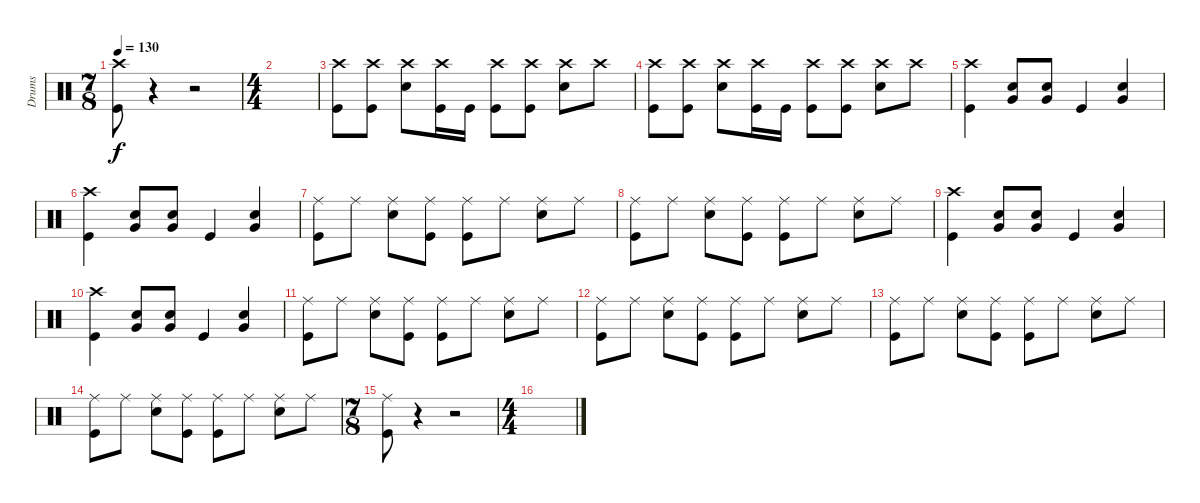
\track ("Drums" "Drums") {instrument percussion}
\staff {score}
\articulation defaults
\ts (7 8)
\tempo 130
\clef neutral
\ks c
("Crash high (hit)" "Kick (hit)").8{dy f} r.4 r.2 |
\ts (4 4)
|
("Crash high (hit)" "Kick (hit)").8 ("Crash high (hit)" "Kick (hit)").8 ("Crash high (hit)" "Snare (hit) 2").8 ("Crash high (hit)" "Kick (hit)").16 "Kick (hit)".16 ("Crash high (hit)" "Kick (hit)").8 ("Crash high (hit)" "Kick (hit)").8 ("Crash high (hit)" "Snare (hit) 2").8 "Crash high (hit)".8 |
("Crash high (hit)" "Kick (hit)").8 ("Crash high (hit)" "Kick (hit)").8 ("Crash high (hit)" "Snare (hit) 2").8 ("Crash high (hit)" "Kick (hit)").16 "Kick (hit)".16 ("Crash high (hit)" "Kick (hit)").8 ("Crash high (hit)" "Kick (hit)").8 ("Crash high (hit)" "Snare (hit) 2").8 "Crash high (hit)".8 |
("Crash high (hit)" "Kick (hit)").4 ("Snare (hit) 2" "Very Low Tom (hit)").8 ("Snare (hit) 2" "Very Low Tom (hit)").8 "Kick (hit)".4 ("Snare (hit) 2" "Very Low Tom (hit)").4 |
("Crash high (hit)" "Kick (hit)").4 ("Snare (hit) 2" "Very Low Tom (hit)").8 ("Snare (hit) 2" "Very Low Tom (hit)").8 "Kick (hit)".4 ("Snare (hit) 2" "Very Low Tom (hit)").4 |
("Ride (middle)" "Kick (hit)").8 "Ride (middle)".8 ("Ride (middle)" "Snare (hit) 2").8 ("Ride (middle)" "Kick (hit)").8 ("Ride (middle)" "Kick (hit)").8 "Ride (middle)".8 ("Ride (middle)" "Snare (hit) 2").8 "Ride (middle)".8 |
("Ride (middle)" "Kick (hit)").8 "Ride (middle)".8 ("Ride (middle)" "Snare (hit) 2").8 ("Ride (middle)" "Kick (hit)").8 ("Ride (middle)" "Kick (hit)").8 "Ride (middle)".8 ("Ride (middle)" "Snare (hit) 2").8 "Ride (middle)".8 |
("Crash high (hit)" "Kick (hit)").4 ("Snare (hit) 2" "Very Low Tom (hit)").8 ("Snare (hit) 2" "Very Low Tom (hit)").8 "Kick (hit)".4 ("Snare (hit) 2" "Very Low Tom (hit)").4 |
("Crash high (hit)" "Kick (hit)").4 ("Snare (hit) 2" "Very Low Tom (hit)").8 ("Snare (hit) 2" "Very Low Tom (hit)").8 "Kick (hit)".4 ("Snare (hit) 2" "Very Low Tom (hit)").4 |
("Ride (middle)" "Kick (hit)").8 "Ride (middle)".8 ("Ride (middle)" "Snare (hit) 2").8 ("Ride (middle)" "Kick (hit)").8 ("Ride (middle)" "Kick (hit)").8 "Ride (middle)".8 ("Ride (middle)" "Snare (hit) 2").8 "Ride (middle)".8 |
("Ride (middle)" "Kick (hit)").8 "Ride (middle)".8 ("Ride (middle)" "Snare (hit) 2").8 ("Ride (middle)" "Kick (hit)").8 ("Ride (middle)" "Kick (hit)").8 "Ride (middle)".8 ("Ride (middle)" "Snare (hit) 2").8 "Ride (middle)".8 |
("Ride (middle)" "Kick (hit)").8 "Ride (middle)".8 ("Ride (middle)" "Snare (hit) 2").8 ("Ride (middle)" "Kick (hit)").8 ("Ride (middle)" "Kick (hit)").8 "Ride (middle)".8 ("Ride (middle)" "Snare (hit) 2").8 "Ride (middle)".8 |
("Ride (middle)" "Kick (hit)").8 "Ride (middle)".8 ("Ride (middle)" "Snare (hit) 2").8 ("Ride (middle)" "Kick (hit)").8 ("Ride (middle)" "Kick (hit)").8 "Ride (middle)".8 ("Ride (middle)" "Snare (hit) 2").8 "Ride (middle)".8 |
\ts (7 8)
("Ride (middle)" "Kick (hit)").8 r.4 r.2 |
\ts (4 4)
